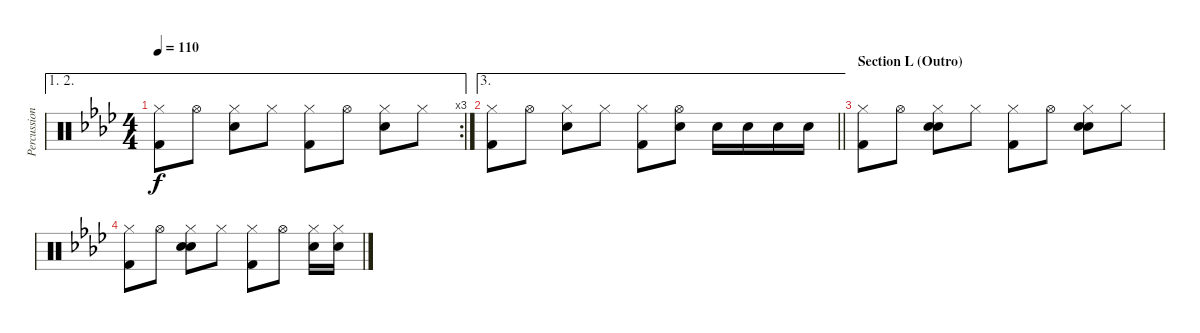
\track ("Percussions" "Percussion") {instrument percussion}
\staff {score}
\articulation defaults
\ae (1 2)
\rc 3
\ts (4 4)
\tempo 110
\clef neutral
\ks ab
("Hi-Hat (closed)" "Kick (hit) 2").8{dy f} "Hi-Hat (open)".8 ("Hi-Hat (closed)" "Electric Snare (hit)").8 "Hi-Hat (closed)".8 ("Hi-Hat (closed)" "Kick (hit) 2").8 "Hi-Hat (open)".8 ("Hi-Hat (closed)" "Electric Snare (hit)").8 "Hi-Hat (closed)".8 |
\ae 3
\barLineRight lightlight
("Hi-Hat (closed)" "Kick (hit) 2").8 "Hi-Hat (open)".8 ("Hi-Hat (closed)" "Electric Snare (hit)").8 "Hi-Hat (closed)".8 ("Hi-Hat (closed)" "Kick (hit) 2").8 ("Hi-Hat (open)" "Electric Snare (hit)").8 "Electric Snare (hit)".16 "Electric Snare (hit)".16 "Electric Snare (hit)".16 "Electric Snare (hit)".16 |
\section ("" "Section L (Outro)")
("Hi-Hat (closed)" "Kick (hit) 2").8 "Hi-Hat (open)".8 ("Hi-Hat (closed)" "Electric Snare (hit)" "Hand Clap (hit)").8 "Hi-Hat (closed)".8 ("Hi-Hat (closed)" "Kick (hit) 2").8 "Hi-Hat (open)".8 ("Hi-Hat (closed)" "Electric Snare (hit)" "Hand Clap (hit)").8 "Hi-Hat (closed)".8 |
("Kick (hit) 2" "Hi-Hat (closed)").8 "Hi-Hat (open)".8 ("Hi-Hat (closed)" "Electric Snare (hit)" "Hand Clap (hit)").8 "Hi-Hat (closed)".8 ("Hi-Hat (closed)" "Kick (hit) 2").8 "Hi-Hat (open)".8 ("Hi-Hat (closed)" "Electric Snare (hit)").16 ("Hi-Hat (closed)" "Electric Snare (hit)").16
